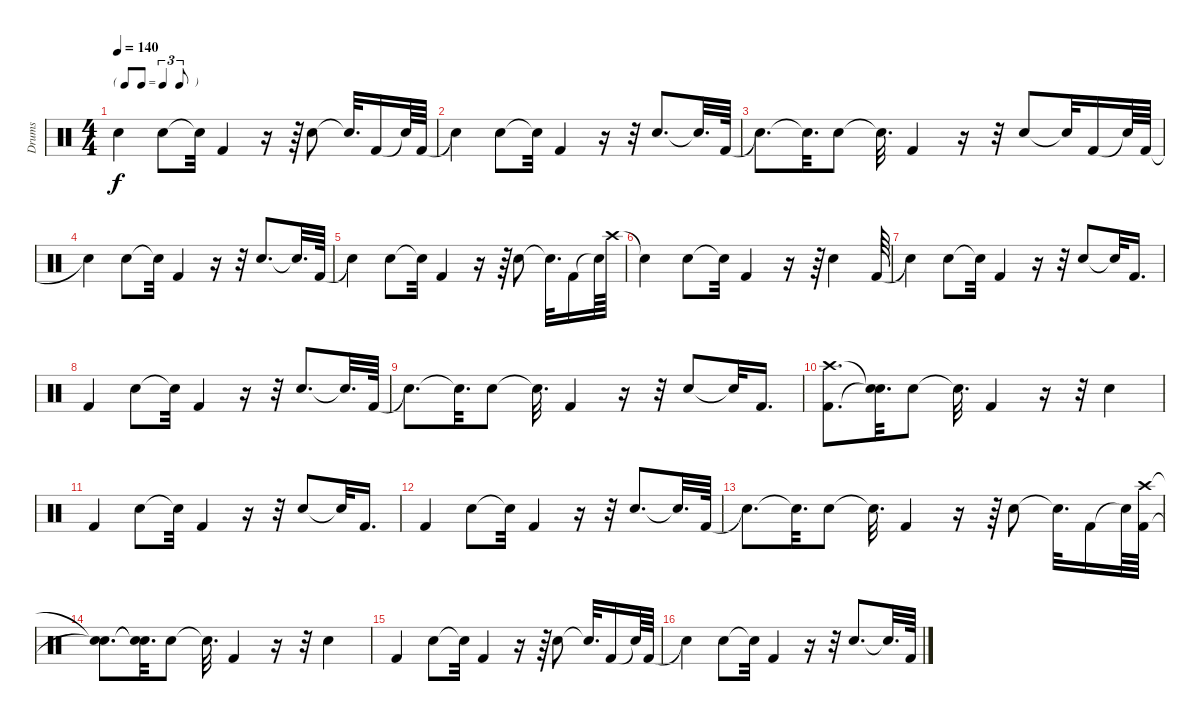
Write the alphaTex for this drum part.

\track ("Drums" "Drums") {instrument percussion}
\staff {score}
\articulation defaults
\ts (4 4)
\tf triplet8th
\tempo 140
\clef neutral
\ks c "Snare (hit)"{t}.4{dy f} "Snare (hit) 2".8 "Snare (hit)"{t}.32 "Kick (hit) 2".4
r.16 r.64 "Snare (hit) 2".8 "Snare (hit)"{t}.32{d} "Kick (hit) 2".16 "Snare (hit)"{t}.64 "Kick (hit) 2".64 |
"Snare (hit)"{t}.4 "Snare (hit) 2".8 "Snare (hit)"{t}.32 "Kick (hit) 2".4 r.16 r.32 "Snare (hit) 2".8{d} "Snare (hit)"{t}.32{d} "Kick (hit) 2".64 |
"Snare (hit)"{t}.8{d} "Snare (hit)"{t}.32{d} "Snare (hit) 2".8 "Snare (hit)"{t}.32{d} "Kick (hit) 2".4 r.16 r.32 "Snare (hit) 2".8 "Snare (hit)"{t}.32 "Kick (hit) 2".16 "Snare (hit)"{t}.64 "Kick (hit) 2".64 |
"Snare (hit)"{t}.4 "Snare (hit) 2".8 "Snare (hit)"{t}.32 "Kick (hit) 2".4 r.16 r.32 "Snare (hit) 2".8{d} "Snare (hit)"{t}.32{d} "Kick (hit) 2".64 |
"Snare (hit)"{t}.4 "Snare (hit) 2".8 "Snare (hit)"{t}.32 "Kick (hit) 2".4 r.16 r.64 "Snare (hit) 2".8 "Snare (hit)"{t}.32{d} "Kick (hit) 2".16 "Snare (hit)"{t}.64 "Crash high (hit)".64 |
"Snare (hit)"{t}.4 "Snare (hit) 2".8 "Snare (hit)"{t}.32 "Kick (hit) 2".4 r.16 r.64 "Snare (hit) 2".4 "Kick (hit) 2".64 |
"Snare (hit)"{t}.4 "Snare (hit) 2".8 "Snare (hit)"{t}.32 "Kick (hit) 2".4 r.16 r.32 "Snare (hit) 2".8 "Snare (hit)"{t}.32 "Kick (hit) 2".16{d} |
"Kick (hit) 2".4 "Snare (hit) 2".8 "Snare (hit)"{t}.32 "Kick (hit) 2".4 r.16 r.32 "Snare (hit) 2".8{d} "Snare (hit)"{t}.32{d} "Kick (hit) 2".64 |
"Snare (hit)"{t}.8{d} "Snare (hit)"{t}.32{d} "Snare (hit) 2".8 "Snare (hit)"{t}.32{d} "Kick (hit) 2".4 r.16 r.32 "Snare (hit) 2".8 "Snare (hit)"{t}.32 "Kick (hit) 2".16{d} |
("Kick (hit) 2" "Crash high (hit)").8{d} ("Snare (hit)"{t} "Snare (hit)"{t}).32{d} "Snare (hit) 2".8 "Snare (hit)"{t}.32{d} "Kick (hit) 2".4 r.16 r.32 "Snare (hit) 2".4 |
"Kick (hit) 2".4 "Snare (hit) 2".8 "Snare (hit)"{t}.32 "Kick (hit) 2".4 r.16 r.32 "Snare (hit) 2".8 "Snare (hit)"{t}.32 "Kick (hit) 2".16{d} |
"Kick (hit) 2".4 "Snare (hit) 2".8 "Snare (hit)"{t}.32 "Kick (hit) 2".4 r.16 r.32 "Snare (hit) 2".8{d} "Snare (hit)"{t}.32{d} "Kick (hit) 2".64 |
"Snare (hit)"{t}.8{d} "Snare (hit)"{t}.32{d} "Snare (hit) 2".8 "Snare (hit)"{t}.32{d} "Kick (hit) 2".4 r.16 r.64 "Snare (hit) 2".8 "Snare (hit)"{t}.32{d} "Kick (hit) 2".16 "Snare (hit)"{t}.64 ("Kick (hit) 2" "Crash high (hit)").64 |
("Snare (hit)"{t} "Snare (hit)"{t}).8{d} ("Snare (hit)"{t} "Snare (hit)"{t}).32{d} "Snare (hit) 2".8 "Snare (hit)"{t}.32{d} "Kick (hit) 2".4 r.16 r.32 "Snare (hit) 2".4 |
"Kick (hit) 2".4 "Snare (hit) 2".8 "Snare (hit)"{t}.32 "Kick (hit) 2".4 r.16 r.64 "Snare (hit) 2".8 "Snare (hit)"{t}.32{d} "Kick (hit) 2".16 "Snare (hit)"{t}.64 "Kick (hit) 2".64 |
"Snare (hit)"{t}.4 "Snare (hit) 2".8 "Snare (hit)"{t}.32 "Kick (hit) 2".4 r.16 r.32 "Snare (hit) 2".8{d} "Snare (hit)"{t}.32{d} "Kick (hit) 2".64
